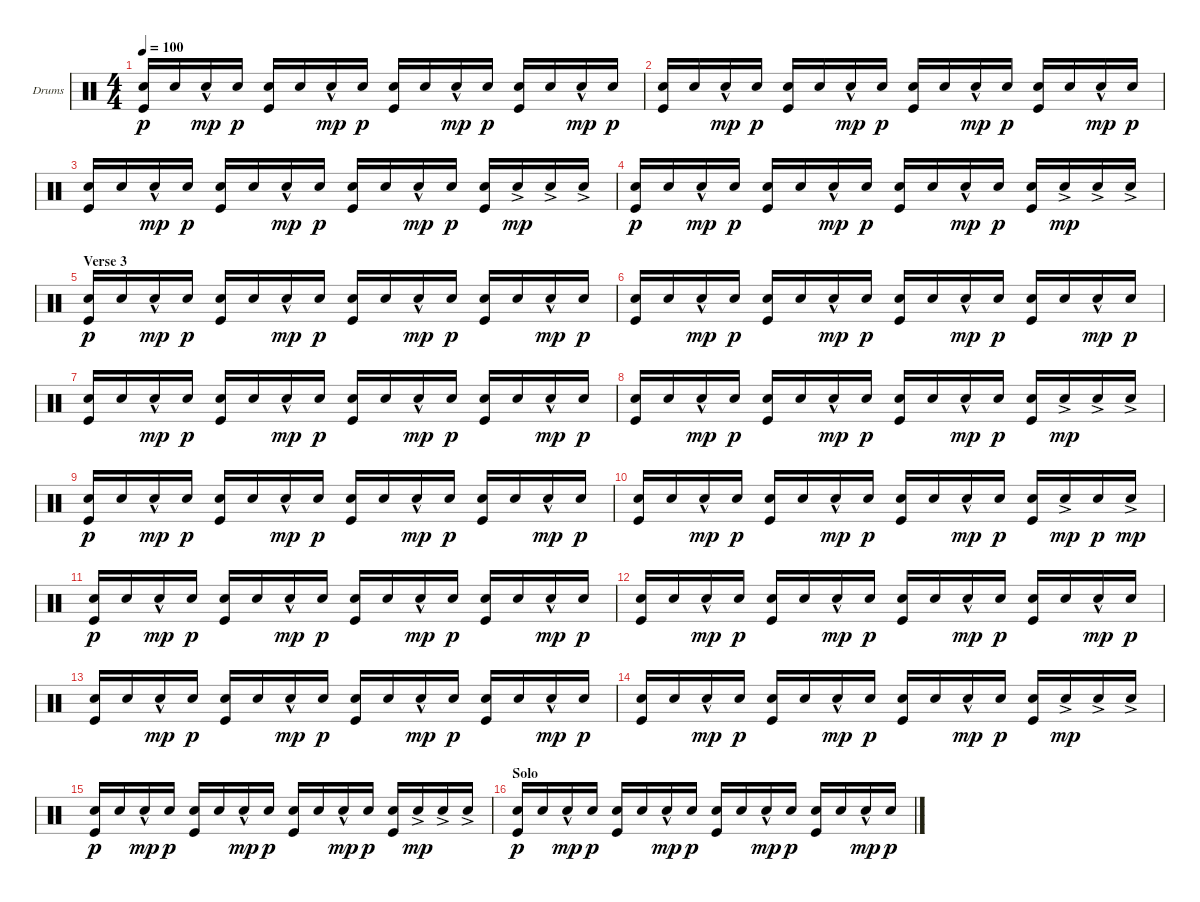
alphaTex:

\defaultSystemsLayout 4
\bracketExtendMode groupsimilarinstruments
\firstSystemTrackNameOrientation horizontal
\otherSystemsTrackNameOrientation horizontal
\track ("Drumkit" "Drums") {instrument percussion}
\staff {score}
\articulation defaults
\ts (4 4)
\tempo 100
\clef neutral
\ks c
("Snare (hit) 2" "Kick (hit)").16{dy p} "Snare (hit) 2".16 "Snare (hit) 2"{hac}.16{dy mp} "Snare (hit) 2".16{dy p} ("Snare (hit) 2" "Kick (hit)").16 "Snare (hit) 2".16 "Snare (hit) 2"{hac}.16{dy mp} "Snare (hit) 2".16{dy p} ("Snare (hit) 2" "Kick (hit)").16 "Snare (hit) 2".16 "Snare (hit) 2"{hac}.16{dy mp} "Snare (hit) 2".16{dy p} ("Snare (hit) 2" "Kick (hit)").16 "Snare (hit) 2".16 "Snare (hit) 2"{hac}.16{dy mp} "Snare (hit) 2".16{dy p} |
("Snare (hit) 2" "Kick (hit)").16 "Snare (hit) 2".16 "Snare (hit) 2"{hac}.16{dy mp} "Snare (hit) 2".16{dy p} ("Snare (hit) 2" "Kick (hit)").16 "Snare (hit) 2".16 "Snare (hit) 2"{hac}.16{dy mp} "Snare (hit) 2".16{dy p} ("Snare (hit) 2" "Kick (hit)").16 "Snare (hit) 2".16 "Snare (hit) 2"{hac}.16{dy mp} "Snare (hit) 2".16{dy p} ("Snare (hit) 2" "Kick (hit)").16 "Snare (hit) 2".16 "Snare (hit) 2"{hac}.16{dy mp} "Snare (hit) 2".16{dy p} |
("Snare (hit) 2" "Kick (hit)").16 "Snare (hit) 2".16 "Snare (hit) 2"{hac}.16{dy mp} "Snare (hit) 2".16{dy p} ("Snare (hit) 2" "Kick (hit)").16 "Snare (hit) 2".16 "Snare (hit) 2"{hac}.16{dy mp} "Snare (hit) 2".16{dy p} ("Snare (hit) 2" "Kick (hit)").16 "Snare (hit) 2".16 "Snare (hit) 2"{hac}.16{dy mp} "Snare (hit) 2".16{dy p} ("Snare (hit) 2" "Kick (hit)").16 "Snare (hit) 2"{ac}.16{dy mp} "Snare (hit) 2"{ac}.16 "Snare (hit) 2"{ac}.16 |
("Snare (hit) 2" "Kick (hit)").16{dy p} "Snare (hit) 2".16 "Snare (hit) 2"{hac}.16{dy mp} "Snare (hit) 2".16{dy p} ("Snare (hit) 2" "Kick (hit)").16 "Snare (hit) 2".16 "Snare (hit) 2"{hac}.16{dy mp} "Snare (hit) 2".16{dy p} ("Snare (hit) 2" "Kick (hit)").16 "Snare (hit) 2".16 "Snare (hit) 2"{hac}.16{dy mp} "Snare (hit) 2".16{dy p} ("Snare (hit) 2" "Kick (hit)").16 "Snare (hit) 2"{ac}.16{dy mp} "Snare (hit) 2"{ac}.16 "Snare (hit) 2"{ac}.16 |
\section ("" "Verse 3")
("Snare (hit) 2" "Kick (hit)").16{dy p} "Snare (hit) 2".16 "Snare (hit) 2"{hac}.16{dy mp} "Snare (hit) 2".16{dy p} ("Snare (hit) 2" "Kick (hit)").16 "Snare (hit) 2".16 "Snare (hit) 2"{hac}.16{dy mp} "Snare (hit) 2".16{dy p} ("Snare (hit) 2" "Kick (hit)").16 "Snare (hit) 2".16 "Snare (hit) 2"{hac}.16{dy mp} "Snare (hit) 2".16{dy p} ("Snare (hit) 2" "Kick (hit)").16 "Snare (hit) 2".16 "Snare (hit) 2"{hac}.16{dy mp} "Snare (hit) 2".16{dy p} |
("Snare (hit) 2" "Kick (hit)").16 "Snare (hit) 2".16 "Snare (hit) 2"{hac}.16{dy mp} "Snare (hit) 2".16{dy p} ("Snare (hit) 2" "Kick (hit)").16 "Snare (hit) 2".16 "Snare (hit) 2"{hac}.16{dy mp} "Snare (hit) 2".16{dy p} ("Snare (hit) 2" "Kick (hit)").16 "Snare (hit) 2".16 "Snare (hit) 2"{hac}.16{dy mp} "Snare (hit) 2".16{dy p} ("Snare (hit) 2" "Kick (hit)").16 "Snare (hit) 2".16 "Snare (hit) 2"{hac}.16{dy mp} "Snare (hit) 2".16{dy p} |
("Snare (hit) 2" "Kick (hit)").16 "Snare (hit) 2".16 "Snare (hit) 2"{hac}.16{dy mp} "Snare (hit) 2".16{dy p} ("Snare (hit) 2" "Kick (hit)").16 "Snare (hit) 2".16 "Snare (hit) 2"{hac}.16{dy mp} "Snare (hit) 2".16{dy p} ("Snare (hit) 2" "Kick (hit)").16 "Snare (hit) 2".16 "Snare (hit) 2"{hac}.16{dy mp} "Snare (hit) 2".16{dy p} ("Snare (hit) 2" "Kick (hit)").16 "Snare (hit) 2".16 "Snare (hit) 2"{hac}.16{dy mp} "Snare (hit) 2".16{dy p} |
("Snare (hit) 2" "Kick (hit)").16 "Snare (hit) 2".16 "Snare (hit) 2"{hac}.16{dy mp} "Snare (hit) 2".16{dy p} ("Snare (hit) 2" "Kick (hit)").16 "Snare (hit) 2".16 "Snare (hit) 2"{hac}.16{dy mp} "Snare (hit) 2".16{dy p} ("Snare (hit) 2" "Kick (hit)").16 "Snare (hit) 2".16 "Snare (hit) 2"{hac}.16{dy mp} "Snare (hit) 2".16{dy p} ("Snare (hit) 2" "Kick (hit)").16 "Snare (hit) 2"{ac}.16{dy mp} "Snare (hit) 2"{ac}.16 "Snare (hit) 2"{ac}.16 |
("Snare (hit) 2" "Kick (hit)").16{dy p} "Snare (hit) 2".16 "Snare (hit) 2"{hac}.16{dy mp} "Snare (hit) 2".16{dy p} ("Snare (hit) 2" "Kick (hit)").16 "Snare (hit) 2".16 "Snare (hit) 2"{hac}.16{dy mp} "Snare (hit) 2".16{dy p} ("Snare (hit) 2" "Kick (hit)").16 "Snare (hit) 2".16 "Snare (hit) 2"{hac}.16{dy mp} "Snare (hit) 2".16{dy p} ("Snare (hit) 2" "Kick (hit)").16 "Snare (hit) 2".16 "Snare (hit) 2"{hac}.16{dy mp} "Snare (hit) 2".16{dy p} |
("Snare (hit) 2" "Kick (hit)").16 "Snare (hit) 2".16 "Snare (hit) 2"{hac}.16{dy mp} "Snare (hit) 2".16{dy p} ("Snare (hit) 2" "Kick (hit)").16 "Snare (hit) 2".16 "Snare (hit) 2"{hac}.16{dy mp} "Snare (hit) 2".16{dy p} ("Snare (hit) 2" "Kick (hit)").16 "Snare (hit) 2".16 "Snare (hit) 2"{hac}.16{dy mp} "Snare (hit) 2".16{dy p} ("Snare (hit) 2" "Kick (hit)").16 "Snare (hit) 2"{ac}.16{dy mp} "Snare (hit) 2".16{dy p} "Snare (hit) 2"{ac}.16{dy mp} |
("Snare (hit) 2" "Kick (hit)").16{dy p} "Snare (hit) 2".16 "Snare (hit) 2"{hac}.16{dy mp} "Snare (hit) 2".16{dy p} ("Snare (hit) 2" "Kick (hit)").16 "Snare (hit) 2".16 "Snare (hit) 2"{hac}.16{dy mp} "Snare (hit) 2".16{dy p} ("Snare (hit) 2" "Kick (hit)").16 "Snare (hit) 2".16 "Snare (hit) 2"{hac}.16{dy mp} "Snare (hit) 2".16{dy p} ("Snare (hit) 2" "Kick (hit)").16 "Snare (hit) 2".16 "Snare (hit) 2"{hac}.16{dy mp} "Snare (hit) 2".16{dy p} |
("Snare (hit) 2" "Kick (hit)").16 "Snare (hit) 2".16 "Snare (hit) 2"{hac}.16{dy mp} "Snare (hit) 2".16{dy p} ("Snare (hit) 2" "Kick (hit)").16 "Snare (hit) 2".16 "Snare (hit) 2"{hac}.16{dy mp} "Snare (hit) 2".16{dy p} ("Snare (hit) 2" "Kick (hit)").16 "Snare (hit) 2".16 "Snare (hit) 2"{hac}.16{dy mp} "Snare (hit) 2".16{dy p} ("Snare (hit) 2" "Kick (hit)").16 "Snare (hit) 2".16 "Snare (hit) 2"{hac}.16{dy mp} "Snare (hit) 2".16{dy p} |
("Snare (hit) 2" "Kick (hit)").16 "Snare (hit) 2".16 "Snare (hit) 2"{hac}.16{dy mp} "Snare (hit) 2".16{dy p} ("Snare (hit) 2" "Kick (hit)").16 "Snare (hit) 2".16 "Snare (hit) 2"{hac}.16{dy mp} "Snare (hit) 2".16{dy p} ("Snare (hit) 2" "Kick (hit)").16 "Snare (hit) 2".16 "Snare (hit) 2"{hac}.16{dy mp} "Snare (hit) 2".16{dy p} ("Snare (hit) 2" "Kick (hit)").16 "Snare (hit) 2".16 "Snare (hit) 2"{hac}.16{dy mp} "Snare (hit) 2".16{dy p} |
("Snare (hit) 2" "Kick (hit)").16 "Snare (hit) 2".16 "Snare (hit) 2"{hac}.16{dy mp} "Snare (hit) 2".16{dy p} ("Snare (hit) 2" "Kick (hit)").16 "Snare (hit) 2".16 "Snare (hit) 2"{hac}.16{dy mp} "Snare (hit) 2".16{dy p} ("Snare (hit) 2" "Kick (hit)").16 "Snare (hit) 2".16 "Snare (hit) 2"{hac}.16{dy mp} "Snare (hit) 2".16{dy p} ("Snare (hit) 2" "Kick (hit)").16 "Snare (hit) 2"{ac}.16{dy mp} "Snare (hit) 2"{ac}.16 "Snare (hit) 2"{ac}.16 |
("Snare (hit) 2" "Kick (hit)").16{dy p} "Snare (hit) 2".16 "Snare (hit) 2"{hac}.16{dy mp} "Snare (hit) 2".16{dy p} ("Snare (hit) 2" "Kick (hit)").16 "Snare (hit) 2".16 "Snare (hit) 2"{hac}.16{dy mp} "Snare (hit) 2".16{dy p} ("Snare (hit) 2" "Kick (hit)").16 "Snare (hit) 2".16 "Snare (hit) 2"{hac}.16{dy mp} "Snare (hit) 2".16{dy p} ("Snare (hit) 2" "Kick (hit)").16 "Snare (hit) 2"{ac}.16{dy mp} "Snare (hit) 2"{ac}.16 "Snare (hit) 2"{ac}.16 |
\section ("" "Solo")
("Snare (hit) 2" "Kick (hit)").16{dy p} "Snare (hit) 2".16 "Snare (hit) 2"{hac}.16{dy mp} "Snare (hit) 2".16{dy p} ("Snare (hit) 2" "Kick (hit)").16 "Snare (hit) 2".16 "Snare (hit) 2"{hac}.16{dy mp} "Snare (hit) 2".16{dy p} ("Snare (hit) 2" "Kick (hit)").16 "Snare (hit) 2".16 "Snare (hit) 2"{hac}.16{dy mp} "Snare (hit) 2".16{dy p} ("Snare (hit) 2" "Kick (hit)").16 "Snare (hit) 2".16 "Snare (hit) 2"{hac}.16{dy mp} "Snare (hit) 2".16{dy p}
